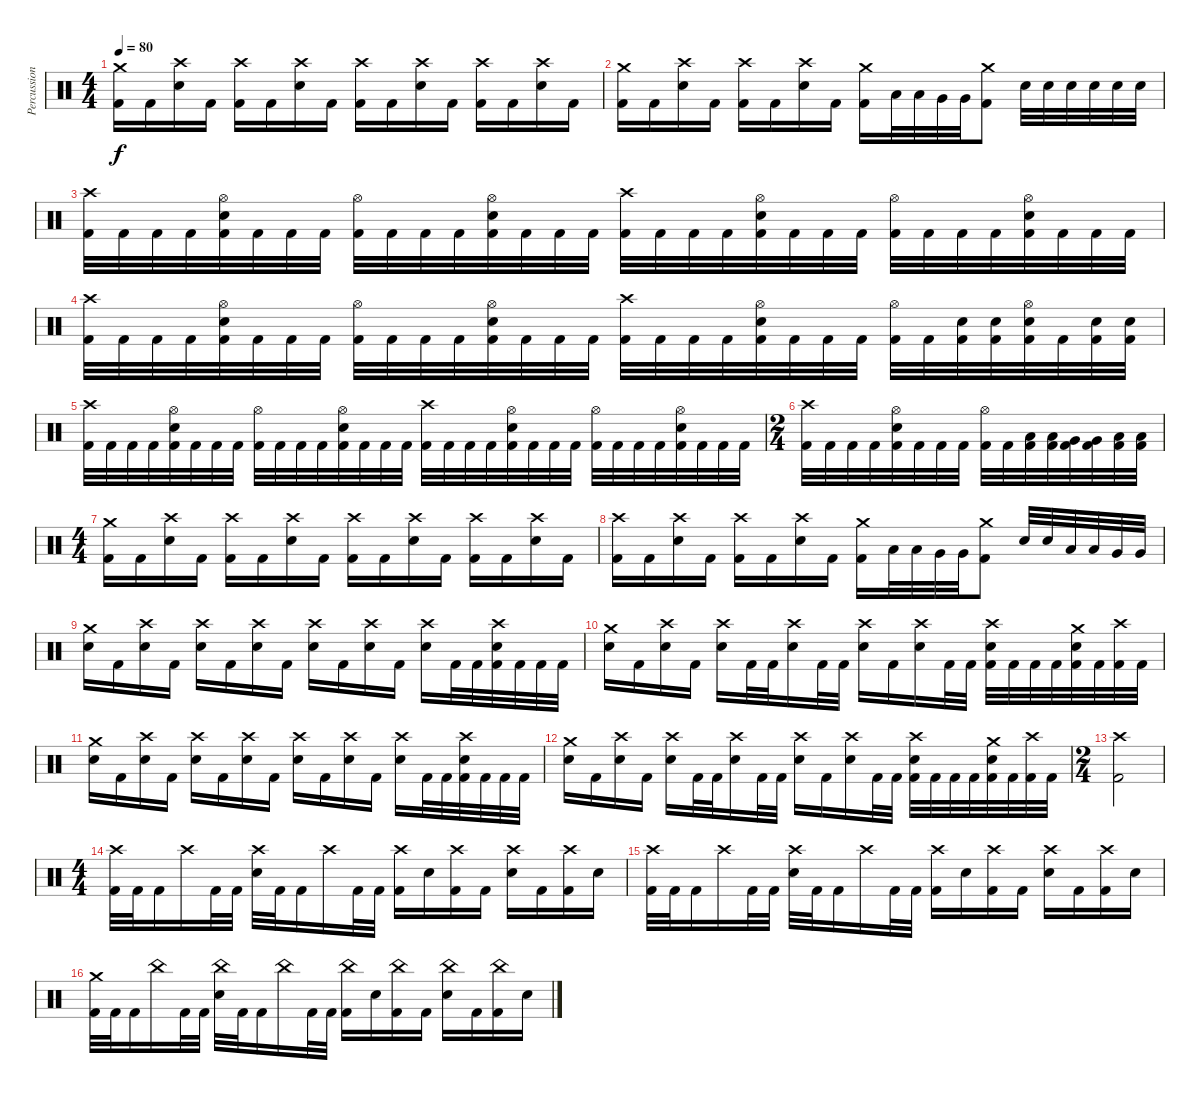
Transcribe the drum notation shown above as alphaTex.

\track ("Percussions" "Percussion") {instrument percussion}
\staff {score}
\articulation defaults
\ts (4 4)
\tempo 80
\clef neutral
\ks c
("Crash medium (hit)" "Kick (hit) 2").16{dy f} "Kick (hit) 2".16 ("Crash high (hit)" "Electric Snare (hit)").16 "Kick (hit) 2".16 ("Crash high (hit)" "Kick (hit) 2").16 "Kick (hit) 2".16 ("Crash high (hit)" "Electric Snare (hit)").16 "Kick (hit) 2".16 ("Crash high (hit)" "Kick (hit) 2").16 "Kick (hit) 2".16 ("Crash high (hit)" "Electric Snare (hit)").16 "Kick (hit) 2".16 ("Crash high (hit)" "Kick (hit) 2").16 "Kick (hit) 2".16 ("Crash high (hit)" "Electric Snare (hit)").16 "Kick (hit) 2".16 |
("Crash medium (hit)" "Kick (hit) 2").16 "Kick (hit) 2".16 ("Crash high (hit)" "Electric Snare (hit)").16 "Kick (hit) 2".16 ("Crash high (hit)" "Kick (hit) 2").16 "Kick (hit) 2".16 ("Crash high (hit)" "Electric Snare (hit)").16 "Kick (hit) 2".16 ("Crash medium (hit)" "Kick (hit) 2").16 "Low Tom (hit)".32 "Low Tom (hit)".32 "Very Low Tom (hit)".32 "Very Low Tom (hit)".32 ("Crash medium (hit)" "Kick (hit) 2").8 "Electric Snare (hit)".32 "Electric Snare (hit)".32 "Electric Snare (hit)".32 "Electric Snare (hit)".32 "Electric Snare (hit)".32 "Electric Snare (hit)".32 |
("Crash high (hit)" "Kick (hit) 2").32 "Kick (hit) 2".32 "Kick (hit) 2".32 "Kick (hit) 2".32 ("Hi-Hat (open)" "Electric Snare (hit)" "Kick (hit) 2").32 "Kick (hit) 2".32 "Kick (hit) 2".32 "Kick (hit) 2".32 ("Hi-Hat (open)" "Kick (hit) 2").32 "Kick (hit) 2".32 "Kick (hit) 2".32 "Kick (hit) 2".32 ("Hi-Hat (open)" "Electric Snare (hit)" "Kick (hit) 2").32 "Kick (hit) 2".32 "Kick (hit) 2".32 "Kick (hit) 2".32 ("Crash high (hit)" "Kick (hit) 2").32 "Kick (hit) 2".32 "Kick (hit) 2".32 "Kick (hit) 2".32 ("Hi-Hat (open)" "Electric Snare (hit)" "Kick (hit) 2").32 "Kick (hit) 2".32 "Kick (hit) 2".32 "Kick (hit) 2".32 ("Hi-Hat (open)" "Kick (hit) 2").32 "Kick (hit) 2".32 "Kick (hit) 2".32 "Kick (hit) 2".32 ("Hi-Hat (open)" "Electric Snare (hit)" "Kick (hit) 2").32 "Kick (hit) 2".32 "Kick (hit) 2".32 "Kick (hit) 2".32 |
("Crash high (hit)" "Kick (hit) 2").32 "Kick (hit) 2".32 "Kick (hit) 2".32 "Kick (hit) 2".32 ("Hi-Hat (open)" "Electric Snare (hit)" "Kick (hit) 2").32 "Kick (hit) 2".32 "Kick (hit) 2".32 "Kick (hit) 2".32 ("Hi-Hat (open)" "Kick (hit) 2").32 "Kick (hit) 2".32 "Kick (hit) 2".32 "Kick (hit) 2".32 ("Hi-Hat (open)" "Electric Snare (hit)" "Kick (hit) 2").32 "Kick (hit) 2".32 "Kick (hit) 2".32 "Kick (hit) 2".32 ("Crash high (hit)" "Kick (hit) 2").32 "Kick (hit) 2".32 "Kick (hit) 2".32 "Kick (hit) 2".32 ("Hi-Hat (open)" "Electric Snare (hit)" "Kick (hit) 2").32 "Kick (hit) 2".32 "Kick (hit) 2".32 "Kick (hit) 2".32 ("Hi-Hat (open)" "Kick (hit) 2").32 "Kick (hit) 2".32 ("Electric Snare (hit)" "Kick (hit) 2").32 ("Electric Snare (hit)" "Kick (hit) 2").32 ("Hi-Hat (open)" "Electric Snare (hit)" "Kick (hit) 2").32 "Kick (hit) 2".32 ("Electric Snare (hit)" "Kick (hit) 2").32 ("Electric Snare (hit)" "Kick (hit) 2").32 |
("Crash high (hit)" "Kick (hit) 2").32 "Kick (hit) 2".32 "Kick (hit) 2".32 "Kick (hit) 2".32 ("Hi-Hat (open)" "Electric Snare (hit)" "Kick (hit) 2").32 "Kick (hit) 2".32 "Kick (hit) 2".32 "Kick (hit) 2".32 ("Hi-Hat (open)" "Kick (hit) 2").32 "Kick (hit) 2".32 "Kick (hit) 2".32 "Kick (hit) 2".32 ("Hi-Hat (open)" "Electric Snare (hit)" "Kick (hit) 2").32 "Kick (hit) 2".32 "Kick (hit) 2".32 "Kick (hit) 2".32 ("Crash high (hit)" "Kick (hit) 2").32 "Kick (hit) 2".32 "Kick (hit) 2".32 "Kick (hit) 2".32 ("Hi-Hat (open)" "Electric Snare (hit)" "Kick (hit) 2").32 "Kick (hit) 2".32 "Kick (hit) 2".32 "Kick (hit) 2".32 ("Hi-Hat (open)" "Kick (hit) 2").32 "Kick (hit) 2".32 "Kick (hit) 2".32 "Kick (hit) 2".32 ("Hi-Hat (open)" "Electric Snare (hit)" "Kick (hit) 2").32 "Kick (hit) 2".32 "Kick (hit) 2".32 "Kick (hit) 2".32 |
\ts (2 4)
("Crash high (hit)" "Kick (hit) 2").32 "Kick (hit) 2".32 "Kick (hit) 2".32 "Kick (hit) 2".32 ("Hi-Hat (open)" "Electric Snare (hit)" "Kick (hit) 2").32 "Kick (hit) 2".32 "Kick (hit) 2".32 "Kick (hit) 2".32 ("Hi-Hat (open)" "Kick (hit) 2").32 "Kick (hit) 2".32 ("Low Tom (hit)" "Kick (hit) 2").32 ("Low Tom (hit)" "Kick (hit) 2").32 ("Very Low Tom (hit)" "Kick (hit) 2").32 ("Very Low Tom (hit)" "Kick (hit) 2").32 ("Low Floor Tom (hit)" "Kick (hit) 2").32 ("Low Floor Tom (hit)" "Kick (hit) 2").32 |
\ts (4 4)
("Crash medium (hit)" "Kick (hit) 2").16 "Kick (hit) 2".16 ("Crash high (hit)" "Electric Snare (hit)").16 "Kick (hit) 2".16 ("Crash high (hit)" "Kick (hit) 2").16 "Kick (hit) 2".16 ("Crash high (hit)" "Electric Snare (hit)").16 "Kick (hit) 2".16 ("Crash high (hit)" "Kick (hit) 2").16 "Kick (hit) 2".16 ("Crash high (hit)" "Electric Snare (hit)").16 "Kick (hit) 2".16 ("Crash high (hit)" "Kick (hit) 2").16 "Kick (hit) 2".16 ("Crash high (hit)" "Electric Snare (hit)").16 "Kick (hit) 2".16 |
("Crash high (hit)" "Kick (hit) 2").16 "Kick (hit) 2".16 ("Crash high (hit)" "Electric Snare (hit)").16 "Kick (hit) 2".16 ("Crash high (hit)" "Kick (hit) 2").16 "Kick (hit) 2".16 ("Crash high (hit)" "Electric Snare (hit)").16 "Kick (hit) 2".16 ("Crash medium (hit)" "Kick (hit) 2").16 "Low Tom (hit)".32 "Low Tom (hit)".32 "Very Low Tom (hit)".32 "Very Low Tom (hit)".32 ("Crash medium (hit)" "Kick (hit) 2").8 "Electric Snare (hit)".32 "Electric Snare (hit)".32 "Low Tom (hit)".32 "Low Tom (hit)".32 "Very Low Tom (hit)".32 "Very Low Tom (hit)".32 |
("Crash medium (hit)" "Electric Snare (hit)").16 "Kick (hit) 2".16 ("Crash high (hit)" "Electric Snare (hit)").16 "Kick (hit) 2".16 ("Crash high (hit)" "Electric Snare (hit)").16 "Kick (hit) 2".16 ("Crash high (hit)" "Electric Snare (hit)").16 "Kick (hit) 2".16 ("Crash high (hit)" "Electric Snare (hit)").16 "Kick (hit) 2".16 ("Crash high (hit)" "Electric Snare (hit)").16 "Kick (hit) 2".16 ("Crash high (hit)" "Electric Snare (hit)").16 "Kick (hit) 2".32 "Kick (hit) 2".32 ("Crash high (hit)" "Electric Snare (hit)" "Kick (hit) 2").32 "Kick (hit) 2".32 "Kick (hit) 2".32 "Kick (hit) 2".32 |
("Crash medium (hit)" "Electric Snare (hit)").16 "Kick (hit) 2".16 ("Crash high (hit)" "Electric Snare (hit)").16 "Kick (hit) 2".16 ("Crash high (hit)" "Electric Snare (hit)").16 "Kick (hit) 2".32 "Kick (hit) 2".32 ("Crash high (hit)" "Electric Snare (hit)").16 "Kick (hit) 2".32 "Kick (hit) 2".32 ("Crash high (hit)" "Electric Snare (hit)").16 "Kick (hit) 2".16 ("Crash high (hit)" "Electric Snare (hit)").16 "Kick (hit) 2".32 "Kick (hit) 2".32 ("Crash high (hit)" "Electric Snare (hit)" "Kick (hit) 2").32 "Kick (hit) 2".32 "Kick (hit) 2".32 "Kick (hit) 2".32 ("Crash medium (hit)" "Electric Snare (hit)" "Kick (hit) 2").32 "Kick (hit) 2".32 ("Crash high (hit)" "Kick (hit) 2").32 "Kick (hit) 2".32 |
("Crash medium (hit)" "Electric Snare (hit)").16 "Kick (hit) 2".16 ("Crash high (hit)" "Electric Snare (hit)").16 "Kick (hit) 2".16 ("Crash high (hit)" "Electric Snare (hit)").16 "Kick (hit) 2".16 ("Crash high (hit)" "Electric Snare (hit)").16 "Kick (hit) 2".16 ("Crash high (hit)" "Electric Snare (hit)").16 "Kick (hit) 2".16 ("Crash high (hit)" "Electric Snare (hit)").16 "Kick (hit) 2".16 ("Crash high (hit)" "Electric Snare (hit)").16 "Kick (hit) 2".32 "Kick (hit) 2".32 ("Crash high (hit)" "Electric Snare (hit)" "Kick (hit) 2").32 "Kick (hit) 2".32 "Kick (hit) 2".32 "Kick (hit) 2".32 |
("Crash medium (hit)" "Electric Snare (hit)").16 "Kick (hit) 2".16 ("Crash high (hit)" "Electric Snare (hit)").16 "Kick (hit) 2".16 ("Crash high (hit)" "Electric Snare (hit)").16 "Kick (hit) 2".32 "Kick (hit) 2".32 ("Crash high (hit)" "Electric Snare (hit)").16 "Kick (hit) 2".32 "Kick (hit) 2".32 ("Crash high (hit)" "Electric Snare (hit)").16 "Kick (hit) 2".16 ("Crash high (hit)" "Electric Snare (hit)").16 "Kick (hit) 2".32 "Kick (hit) 2".32 ("Crash high (hit)" "Electric Snare (hit)" "Kick (hit) 2").32 "Kick (hit) 2".32 "Kick (hit) 2".32 "Kick (hit) 2".32 ("Crash medium (hit)" "Electric Snare (hit)" "Kick (hit) 2").32 "Kick (hit) 2".32 ("Crash high (hit)" "Kick (hit) 2").32 "Kick (hit) 2".32 |
\ts (2 4)
("Crash high (hit)" "Kick (hit) 2").2 |
\ts (4 4)
("Crash high (hit)" "Kick (hit) 2").32 "Kick (hit) 2".32 "Kick (hit) 2".16 "Crash high (hit)".16 "Kick (hit) 2".32 "Kick (hit) 2".32 ("Crash high (hit)" "Electric Snare (hit)").32 "Kick (hit) 2".32 "Kick (hit) 2".16 "Crash high (hit)".16 "Kick (hit) 2".32 "Kick (hit) 2".32 ("Crash high (hit)" "Kick (hit) 2").16 "Electric Snare (hit)".16 ("Crash high (hit)" "Kick (hit) 2").16 "Kick (hit) 2".16 ("Crash high (hit)" "Electric Snare (hit)").16 "Kick (hit) 2".16 ("Crash high (hit)" "Kick (hit) 2").16 "Electric Snare (hit)".16 |
("Crash high (hit)" "Kick (hit) 2").32 "Kick (hit) 2".32 "Kick (hit) 2".16 "Crash high (hit)".16 "Kick (hit) 2".32 "Kick (hit) 2".32 ("Crash high (hit)" "Electric Snare (hit)").32 "Kick (hit) 2".32 "Kick (hit) 2".16 "Crash high (hit)".16 "Kick (hit) 2".32 "Kick (hit) 2".32 ("Crash high (hit)" "Kick (hit) 2").16 "Electric Snare (hit)".16 ("Crash high (hit)" "Kick (hit) 2").16 "Kick (hit) 2".16 ("Crash high (hit)" "Electric Snare (hit)").16 "Kick (hit) 2".16 ("Crash high (hit)" "Kick (hit) 2").16 "Electric Snare (hit)".16 |
("Crash medium (hit)" "Kick (hit) 2").32 "Kick (hit) 2".32 "Kick (hit) 2".16 "China (hit)".16 "Kick (hit) 2".32 "Kick (hit) 2".32 ("China (hit)" "Electric Snare (hit)").32 "Kick (hit) 2".32 "Kick (hit) 2".16 "China (hit)".16 "Kick (hit) 2".32 "Kick (hit) 2".32 ("China (hit)" "Kick (hit) 2").16 "Electric Snare (hit)".16 ("China (hit)" "Kick (hit) 2").16 "Kick (hit) 2".16 ("China (hit)" "Electric Snare (hit)").16 "Kick (hit) 2".16 ("China (hit)" "Kick (hit) 2").16 "Electric Snare (hit)".16
